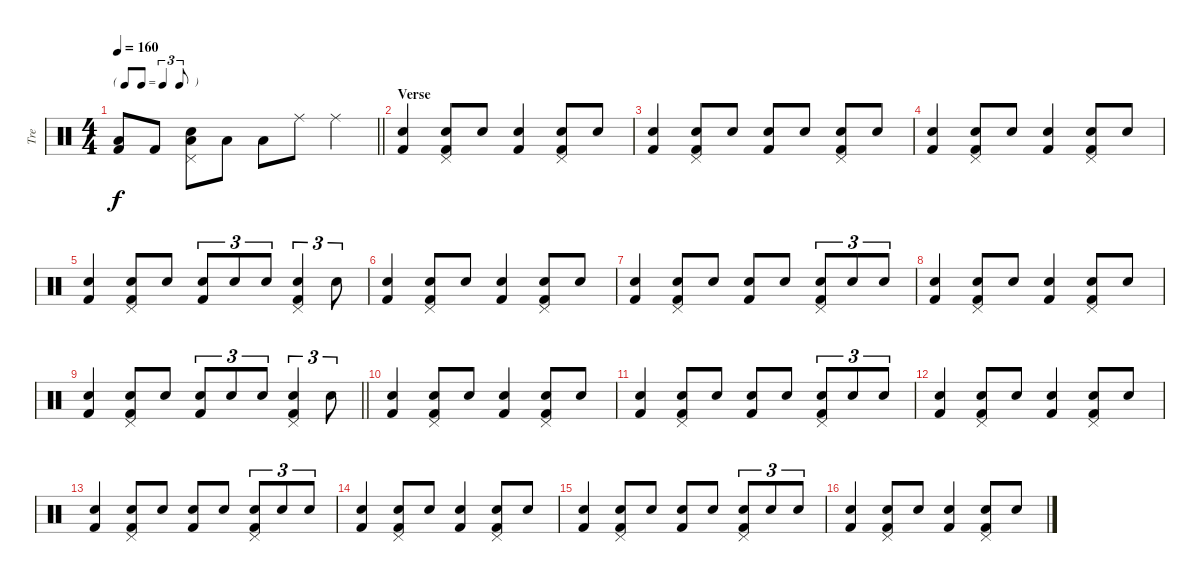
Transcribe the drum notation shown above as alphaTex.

\track ("Tre" "Tre") {instrument percussion}
\staff {score}
\articulation defaults
\ts (4 4)
\tf triplet8th
\tempo 160
\clef neutral
\barLineRight lightlight
\ks c
("Low Floor Tom (hit)" "Kick (hit) 2").8{dy f} "Kick (hit) 2".8 ("Pedal Hi-Hat (hit)" "Snare (hit) 2" "Low Floor Tom (hit)").8 "Low Tom (hit)".8 "Low Tom (hit)".8 "Ride (middle)".8 "Ride (middle)".4 |
\section ("" "Verse")
("Snare (hit) 2" "Kick (hit) 2").4 ("Pedal Hi-Hat (hit)" "Snare (hit) 2" "Kick (hit) 2").8 "Snare (hit) 2".8 ("Snare (hit) 2" "Kick (hit) 2").4 ("Pedal Hi-Hat (hit)" "Snare (hit) 2" "Kick (hit) 2").8 "Snare (hit) 2".8 |
("Snare (hit) 2" "Kick (hit) 2").4 ("Pedal Hi-Hat (hit)" "Snare (hit) 2" "Kick (hit) 2").8 "Snare (hit) 2".8 ("Snare (hit) 2" "Kick (hit) 2").8 "Snare (hit) 2".8 ("Pedal Hi-Hat (hit)" "Snare (hit) 2" "Kick (hit) 2").8 "Snare (hit) 2".8 |
("Snare (hit) 2" "Kick (hit) 2").4 ("Pedal Hi-Hat (hit)" "Snare (hit) 2" "Kick (hit) 2").8 "Snare (hit) 2".8 ("Snare (hit) 2" "Kick (hit) 2").4 ("Pedal Hi-Hat (hit)" "Snare (hit) 2" "Kick (hit) 2").8 "Snare (hit) 2".8 |
("Snare (hit) 2" "Kick (hit) 2").4 ("Pedal Hi-Hat (hit)" "Snare (hit) 2" "Kick (hit) 2").8 "Snare (hit) 2".8 ("Snare (hit) 2" "Kick (hit) 2").8{tu (3 2)} "Snare (hit) 2".8{tu (3 2)} "Snare (hit) 2".8{tu (3 2)} ("Pedal Hi-Hat (hit)" "Snare (hit) 2" "Kick (hit) 2").4{tu (3 2)} "Snare (hit) 2".8{tu (3 2)} |
("Snare (hit) 2" "Kick (hit) 2").4 ("Pedal Hi-Hat (hit)" "Snare (hit) 2" "Kick (hit) 2").8 "Snare (hit) 2".8 ("Snare (hit) 2" "Kick (hit) 2").4 ("Pedal Hi-Hat (hit)" "Snare (hit) 2" "Kick (hit) 2").8 "Snare (hit) 2".8 |
("Snare (hit) 2" "Kick (hit) 2").4 ("Pedal Hi-Hat (hit)" "Snare (hit) 2" "Kick (hit) 2").8 "Snare (hit) 2".8 ("Snare (hit) 2" "Kick (hit) 2").8 "Snare (hit) 2".8 ("Pedal Hi-Hat (hit)" "Snare (hit) 2" "Kick (hit) 2").8{tu (3 2)} "Snare (hit) 2".8{tu (3 2)} "Snare (hit) 2".8{tu (3 2)} |
("Snare (hit) 2" "Kick (hit) 2").4 ("Pedal Hi-Hat (hit)" "Snare (hit) 2" "Kick (hit) 2").8 "Snare (hit) 2".8 ("Snare (hit) 2" "Kick (hit) 2").4 ("Pedal Hi-Hat (hit)" "Snare (hit) 2" "Kick (hit) 2").8 "Snare (hit) 2".8 |
\barLineRight lightlight
("Snare (hit) 2" "Kick (hit) 2").4 ("Pedal Hi-Hat (hit)" "Snare (hit) 2" "Kick (hit) 2").8 "Snare (hit) 2".8 ("Snare (hit) 2" "Kick (hit) 2").8{tu (3 2)} "Snare (hit) 2".8{tu (3 2)} "Snare (hit) 2".8{tu (3 2)} ("Pedal Hi-Hat (hit)" "Snare (hit) 2" "Kick (hit) 2").4{tu (3 2)} "Snare (hit) 2".8{tu (3 2)} |
("Snare (hit) 2" "Kick (hit) 2").4 ("Pedal Hi-Hat (hit)" "Snare (hit) 2" "Kick (hit) 2").8 "Snare (hit) 2".8 ("Snare (hit) 2" "Kick (hit) 2").4 ("Pedal Hi-Hat (hit)" "Snare (hit) 2" "Kick (hit) 2").8 "Snare (hit) 2".8 |
("Snare (hit) 2" "Kick (hit) 2").4 ("Pedal Hi-Hat (hit)" "Snare (hit) 2" "Kick (hit) 2").8 "Snare (hit) 2".8 ("Snare (hit) 2" "Kick (hit) 2").8 "Snare (hit) 2".8 ("Pedal Hi-Hat (hit)" "Snare (hit) 2" "Kick (hit) 2").8{tu (3 2)} "Snare (hit) 2".8{tu (3 2)} "Snare (hit) 2".8{tu (3 2)} |
("Snare (hit) 2" "Kick (hit) 2").4 ("Pedal Hi-Hat (hit)" "Snare (hit) 2" "Kick (hit) 2").8 "Snare (hit) 2".8 ("Snare (hit) 2" "Kick (hit) 2").4 ("Pedal Hi-Hat (hit)" "Snare (hit) 2" "Kick (hit) 2").8 "Snare (hit) 2".8 |
("Snare (hit) 2" "Kick (hit) 2").4 ("Pedal Hi-Hat (hit)" "Snare (hit) 2" "Kick (hit) 2").8 "Snare (hit) 2".8 ("Snare (hit) 2" "Kick (hit) 2").8 "Snare (hit) 2".8 ("Pedal Hi-Hat (hit)" "Snare (hit) 2" "Kick (hit) 2").8{tu (3 2)} "Snare (hit) 2".8{tu (3 2)} "Snare (hit) 2".8{tu (3 2)} |
("Snare (hit) 2" "Kick (hit) 2").4 ("Pedal Hi-Hat (hit)" "Snare (hit) 2" "Kick (hit) 2").8 "Snare (hit) 2".8 ("Snare (hit) 2" "Kick (hit) 2").4 ("Pedal Hi-Hat (hit)" "Snare (hit) 2" "Kick (hit) 2").8 "Snare (hit) 2".8 |
("Snare (hit) 2" "Kick (hit) 2").4 ("Pedal Hi-Hat (hit)" "Snare (hit) 2" "Kick (hit) 2").8 "Snare (hit) 2".8 ("Snare (hit) 2" "Kick (hit) 2").8 "Snare (hit) 2".8 ("Pedal Hi-Hat (hit)" "Snare (hit) 2" "Kick (hit) 2").8{tu (3 2)} "Snare (hit) 2".8{tu (3 2)} "Snare (hit) 2".8{tu (3 2)} |
("Snare (hit) 2" "Kick (hit) 2").4 ("Pedal Hi-Hat (hit)" "Snare (hit) 2" "Kick (hit) 2").8 "Snare (hit) 2".8 ("Snare (hit) 2" "Kick (hit) 2").4 ("Pedal Hi-Hat (hit)" "Snare (hit) 2" "Kick (hit) 2").8 "Snare (hit) 2".8
